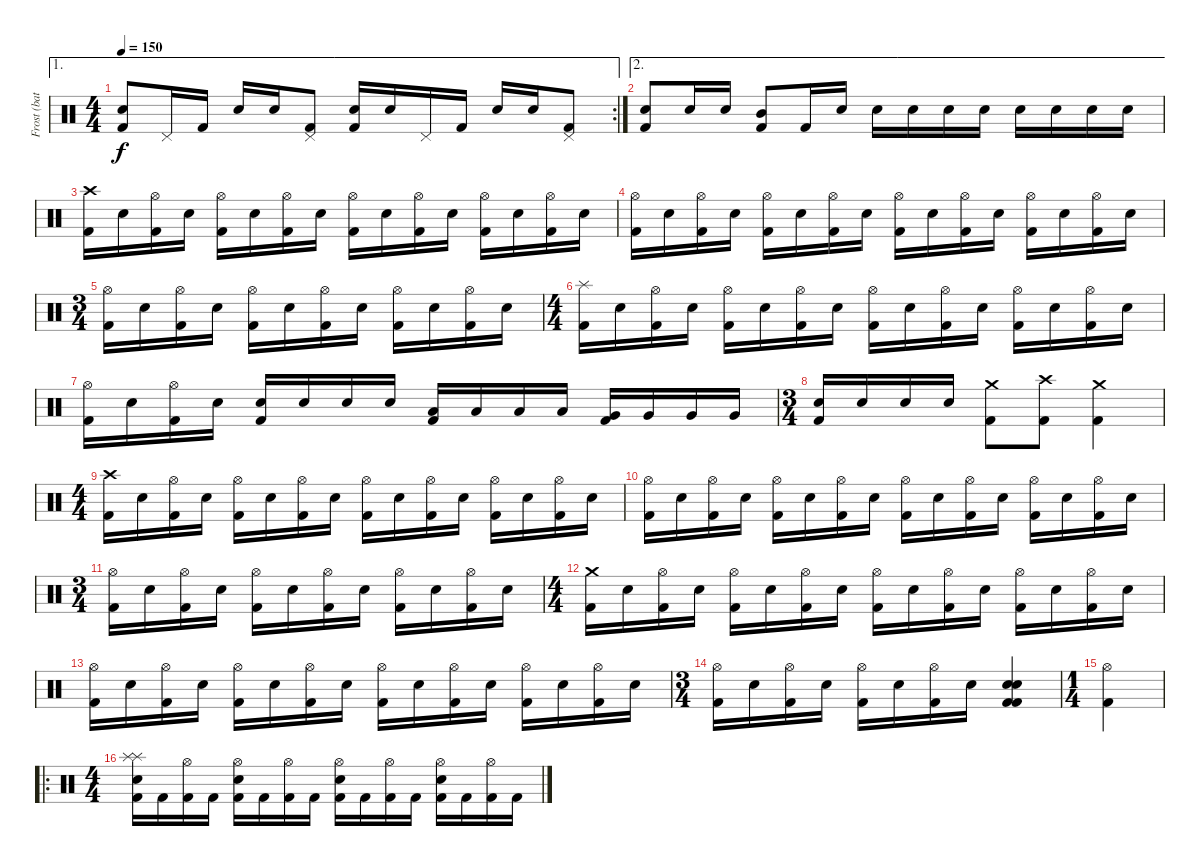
\track ("Frost (battery)" "Frost (bat") {instrument percussion}
\staff {score}
\articulation defaults
\ae 1
\rc 2
\ts (4 4)
\tempo 150
\clef neutral
\ks c
("Snare (hit) 2" "Kick (hit) 2").8{dy f} "Pedal Hi-Hat (hit)".16 "Kick (hit) 2".16 "Snare (hit) 2".16 "Snare (hit) 2".16 ("Pedal Hi-Hat (hit)" "Kick (hit) 2").8 ("Snare (hit) 2" "Kick (hit) 2").16 "Snare (hit) 2".16 "Pedal Hi-Hat (hit)".16 "Kick (hit) 2".16 "Snare (hit) 2".16 "Snare (hit) 2".16 ("Pedal Hi-Hat (hit)" "Kick (hit) 2").8 |
\ae 2
("Electric Snare (hit)" "Kick (hit) 2").8 "Electric Snare (hit)".16 "Electric Snare (hit)".16 ("Mid Tom (hit)" "Kick (hit) 2").8 "Kick (hit) 2".16 "Electric Snare (hit)".16 "Electric Snare (hit)".16 "Electric Snare (hit)".16 "Electric Snare (hit)".16 "Electric Snare (hit)".16 "Electric Snare (hit)".16 "Electric Snare (hit)".16 "Electric Snare (hit)".16 "Electric Snare (hit)".16 |
("Crash high (hit)" "Kick (hit) 2").16 "Electric Snare (hit)".16 ("Hi-Hat (open)" "Kick (hit) 2").16 "Electric Snare (hit)".16 ("Hi-Hat (open)" "Kick (hit) 2").16 "Electric Snare (hit)".16 ("Hi-Hat (open)" "Kick (hit) 2").16 "Electric Snare (hit)".16 ("Hi-Hat (open)" "Kick (hit) 2").16 "Electric Snare (hit)".16 ("Hi-Hat (open)" "Kick (hit) 2").16 "Electric Snare (hit)".16 ("Hi-Hat (open)" "Kick (hit) 2").16 "Electric Snare (hit)".16 ("Hi-Hat (open)" "Kick (hit) 2").16 "Electric Snare (hit)".16 |
("Hi-Hat (open)" "Kick (hit) 2").16 "Electric Snare (hit)".16 ("Hi-Hat (open)" "Kick (hit) 2").16 "Electric Snare (hit)".16 ("Hi-Hat (open)" "Kick (hit) 2").16 "Electric Snare (hit)".16 ("Hi-Hat (open)" "Kick (hit) 2").16 "Electric Snare (hit)".16 ("Hi-Hat (open)" "Kick (hit) 2").16 "Electric Snare (hit)".16 ("Hi-Hat (open)" "Kick (hit) 2").16 "Electric Snare (hit)".16 ("Hi-Hat (open)" "Kick (hit) 2").16 "Electric Snare (hit)".16 ("Hi-Hat (open)" "Kick (hit) 2").16 "Electric Snare (hit)".16 |
\ts (3 4)
("Hi-Hat (open)" "Kick (hit) 2").16 "Electric Snare (hit)".16 ("Hi-Hat (open)" "Kick (hit) 2").16 "Electric Snare (hit)".16 ("Hi-Hat (open)" "Kick (hit) 2").16 "Electric Snare (hit)".16 ("Hi-Hat (open)" "Kick (hit) 2").16 "Electric Snare (hit)".16 ("Hi-Hat (open)" "Kick (hit) 2").16 "Electric Snare (hit)".16 ("Hi-Hat (open)" "Kick (hit) 2").16 "Electric Snare (hit)".16 |
\ts (4 4)
("Splash (hit)" "Kick (hit) 2").16 "Electric Snare (hit)".16 ("Hi-Hat (open)" "Kick (hit) 2").16 "Electric Snare (hit)".16 ("Hi-Hat (open)" "Kick (hit) 2").16 "Electric Snare (hit)".16 ("Hi-Hat (open)" "Kick (hit) 2").16 "Electric Snare (hit)".16 ("Hi-Hat (open)" "Kick (hit) 2").16 "Electric Snare (hit)".16 ("Hi-Hat (open)" "Kick (hit) 2").16 "Electric Snare (hit)".16 ("Hi-Hat (open)" "Kick (hit) 2").16 "Electric Snare (hit)".16 ("Hi-Hat (open)" "Kick (hit) 2").16 "Electric Snare (hit)".16 |
("Hi-Hat (open)" "Kick (hit) 2").16 "Electric Snare (hit)".16 ("Hi-Hat (open)" "Kick (hit) 2").16 "Electric Snare (hit)".16 ("Electric Snare (hit)" "Kick (hit) 2").16 "Electric Snare (hit)".16 "Electric Snare (hit)".16 "Electric Snare (hit)".16 ("Low Tom (hit)" "Kick (hit) 2").16 "Low Tom (hit)".16 "Low Tom (hit)".16 "Low Tom (hit)".16 ("Very Low Tom (hit)" "Kick (hit) 2").16 "Very Low Tom (hit)".16 "Very Low Tom (hit)".16 "Very Low Tom (hit)".16 |
\ts (3 4)
("Electric Snare (hit)" "Kick (hit) 2").16 "Electric Snare (hit)".16 "Electric Snare (hit)".16 "Electric Snare (hit)".16 ("Crash medium (hit)" "Kick (hit) 2").8 ("Crash high (hit)" "Kick (hit) 2").8 ("Crash medium (hit)" "Kick (hit) 2").4 |
\ts (4 4)
("Crash high (hit)" "Kick (hit) 2").16 "Electric Snare (hit)".16 ("Hi-Hat (open)" "Kick (hit) 2").16 "Electric Snare (hit)".16 ("Hi-Hat (open)" "Kick (hit) 2").16 "Electric Snare (hit)".16 ("Hi-Hat (open)" "Kick (hit) 2").16 "Electric Snare (hit)".16 ("Hi-Hat (open)" "Kick (hit) 2").16 "Electric Snare (hit)".16 ("Hi-Hat (open)" "Kick (hit) 2").16 "Electric Snare (hit)".16 ("Hi-Hat (open)" "Kick (hit) 2").16 "Electric Snare (hit)".16 ("Hi-Hat (open)" "Kick (hit) 2").16 "Electric Snare (hit)".16 |
("Hi-Hat (open)" "Kick (hit) 2").16 "Electric Snare (hit)".16 ("Hi-Hat (open)" "Kick (hit) 2").16 "Electric Snare (hit)".16 ("Hi-Hat (open)" "Kick (hit) 2").16 "Electric Snare (hit)".16 ("Hi-Hat (open)" "Kick (hit) 2").16 "Electric Snare (hit)".16 ("Hi-Hat (open)" "Kick (hit) 2").16 "Electric Snare (hit)".16 ("Hi-Hat (open)" "Kick (hit) 2").16 "Electric Snare (hit)".16 ("Hi-Hat (open)" "Kick (hit) 2").16 "Electric Snare (hit)".16 ("Hi-Hat (open)" "Kick (hit) 2").16 "Electric Snare (hit)".16 |
\ts (3 4)
("Hi-Hat (open)" "Kick (hit) 2").16 "Electric Snare (hit)".16 ("Hi-Hat (open)" "Kick (hit) 2").16 "Electric Snare (hit)".16 ("Hi-Hat (open)" "Kick (hit) 2").16 "Electric Snare (hit)".16 ("Hi-Hat (open)" "Kick (hit) 2").16 "Electric Snare (hit)".16 ("Hi-Hat (open)" "Kick (hit) 2").16 "Electric Snare (hit)".16 ("Hi-Hat (open)" "Kick (hit) 2").16 "Electric Snare (hit)".16 |
\ts (4 4)
("Crash medium (hit)" "Kick (hit) 2").16 "Electric Snare (hit)".16 ("Hi-Hat (open)" "Kick (hit) 2").16 "Electric Snare (hit)".16 ("Hi-Hat (open)" "Kick (hit) 2").16 "Electric Snare (hit)".16 ("Hi-Hat (open)" "Kick (hit) 2").16 "Electric Snare (hit)".16 ("Hi-Hat (open)" "Kick (hit) 2").16 "Electric Snare (hit)".16 ("Hi-Hat (open)" "Kick (hit) 2").16 "Electric Snare (hit)".16 ("Hi-Hat (open)" "Kick (hit) 2").16 "Electric Snare (hit)".16 ("Hi-Hat (open)" "Kick (hit) 2").16 "Electric Snare (hit)".16 |
("Hi-Hat (open)" "Kick (hit) 2").16 "Electric Snare (hit)".16 ("Hi-Hat (open)" "Kick (hit) 2").16 "Electric Snare (hit)".16 ("Hi-Hat (open)" "Kick (hit) 2").16 "Electric Snare (hit)".16 ("Hi-Hat (open)" "Kick (hit) 2").16 "Electric Snare (hit)".16 ("Hi-Hat (open)" "Kick (hit) 2").16 "Electric Snare (hit)".16 ("Hi-Hat (open)" "Kick (hit) 2").16 "Electric Snare (hit)".16 ("Hi-Hat (open)" "Kick (hit) 2").16 "Electric Snare (hit)".16 ("Hi-Hat (open)" "Kick (hit) 2").16 "Electric Snare (hit)".16 |
\ts (3 4)
("Hi-Hat (open)" "Kick (hit) 2").16 "Electric Snare (hit)".16 ("Hi-Hat (open)" "Kick (hit) 2").16 "Electric Snare (hit)".16 ("Hi-Hat (open)" "Kick (hit) 2").16 "Electric Snare (hit)".16 ("Hi-Hat (open)" "Kick (hit) 2").16 "Electric Snare (hit)".16 ("Electric Snare (hit)" "Electric Snare (hit)" "Kick (hit) 2" "Kick (hit) 2").4 |
\ts (1 4)
("Hi-Hat (open)" "Kick (hit) 2").4 |
\ro
\ts (4 4)
("Splash (hit)" "Splash (hit)" "Electric Snare (hit)" "Kick (hit) 2").16 "Kick (hit) 2".16 ("Hi-Hat (open)" "Kick (hit) 2").16 "Kick (hit) 2".16 ("Hi-Hat (open)" "Electric Snare (hit)" "Kick (hit) 2").16 "Kick (hit) 2".16 ("Hi-Hat (open)" "Kick (hit) 2").16 "Kick (hit) 2".16 ("Hi-Hat (open)" "Electric Snare (hit)" "Kick (hit) 2").16 "Kick (hit) 2".16 ("Hi-Hat (open)" "Kick (hit) 2").16 "Kick (hit) 2".16 ("Hi-Hat (open)" "Electric Snare (hit)" "Kick (hit) 2").16 "Kick (hit) 2".16 ("Hi-Hat (open)" "Kick (hit) 2").16 "Kick (hit) 2".16
